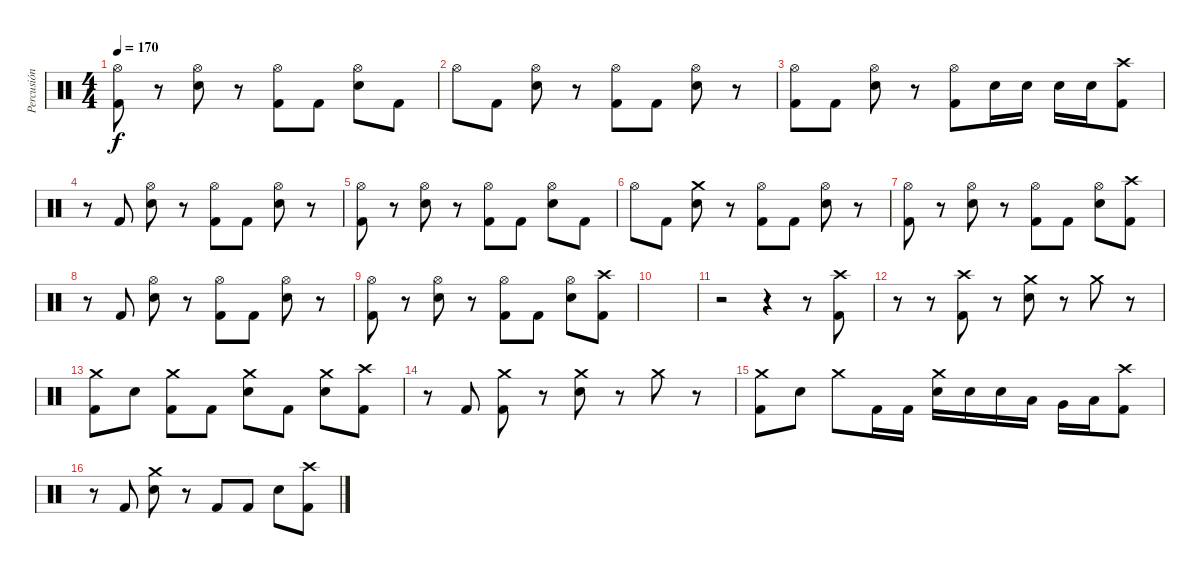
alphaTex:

\track ("Percusión" "Percusión") {instrument percussion}
\staff {score}
\articulation defaults
\ts (4 4)
\tempo 170
\clef neutral
\ks c
("Kick (hit) 2" "Hi-Hat (open)").8{dy f} r.8 ("Snare (hit) 2" "Hi-Hat (open)").8 r.8 ("Kick (hit) 2" "Hi-Hat (open)").8 "Kick (hit) 2".8 ("Snare (hit) 2" "Hi-Hat (open)").8 "Kick (hit) 2".8 |
"Hi-Hat (open)".8 "Kick (hit) 2".8 ("Snare (hit) 2" "Hi-Hat (open)").8 r.8 ("Kick (hit) 2" "Hi-Hat (open)").8 "Kick (hit) 2".8 ("Snare (hit) 2" "Hi-Hat (open)").8 r.8 |
("Kick (hit) 2" "Hi-Hat (open)").8 "Kick (hit) 2".8 ("Snare (hit) 2" "Hi-Hat (open)").8 r.8 ("Kick (hit) 2" "Hi-Hat (open)").8 "Snare (hit) 2".16 "Snare (hit) 2".16 "Snare (hit) 2".16 "Snare (hit) 2".16 ("Kick (hit) 2" "Crash high (hit)").8 |
r.8 "Kick (hit) 2".8 ("Snare (hit) 2" "Hi-Hat (open)").8 r.8 ("Kick (hit) 2" "Hi-Hat (open)").8 "Kick (hit) 2".8 ("Snare (hit) 2" "Hi-Hat (open)").8 r.8 |
("Kick (hit) 2" "Hi-Hat (open)").8 r.8 ("Snare (hit) 2" "Hi-Hat (open)").8 r.8 ("Kick (hit) 2" "Hi-Hat (open)").8 "Kick (hit) 2".8 ("Snare (hit) 2" "Hi-Hat (open)").8 "Kick (hit) 2".8 |
"Hi-Hat (open)".8 "Kick (hit) 2".8 ("Snare (hit) 2" "Crash medium (hit)").8 r.8 ("Kick (hit) 2" "Hi-Hat (open)").8 "Kick (hit) 2".8 ("Snare (hit) 2" "Hi-Hat (open)").8 r.8 |
("Kick (hit) 2" "Hi-Hat (open)").8 r.8 ("Snare (hit) 2" "Hi-Hat (open)").8 r.8 ("Kick (hit) 2" "Hi-Hat (open)").8 "Kick (hit) 2".8 ("Snare (hit) 2" "Hi-Hat (open)").8 ("Kick (hit) 2" "Crash high (hit)").8 |
r.8 "Kick (hit) 2".8 ("Snare (hit) 2" "Hi-Hat (open)").8 r.8 ("Kick (hit) 2" "Hi-Hat (open)").8 "Kick (hit) 2".8 ("Snare (hit) 2" "Hi-Hat (open)").8 r.8 |
("Kick (hit) 2" "Hi-Hat (open)").8 r.8 ("Snare (hit) 2" "Hi-Hat (open)").8 r.8 ("Kick (hit) 2" "Hi-Hat (open)").8 "Kick (hit) 2".8 ("Snare (hit) 2" "Hi-Hat (open)").8 ("Kick (hit) 2" "Crash high (hit)").8 |
|
r.2 r.4 r.8 ("Kick (hit) 2" "Crash high (hit)").8 |
r.8 r.8 ("Kick (hit) 2" "Crash high (hit)").8 r.8 ("Snare (hit) 2" "Crash medium (hit)").8 r.8 "Crash medium (hit)".8 r.8 |
("Kick (hit) 2" "Crash medium (hit)").8 "Snare (hit) 2".8 ("Kick (hit) 2" "Crash medium (hit)").8 "Kick (hit) 2".8 ("Snare (hit) 2" "Crash medium (hit)").8 "Kick (hit) 2".8 ("Snare (hit) 2" "Crash medium (hit)").8 ("Kick (hit) 2" "Crash high (hit)").8 |
r.8 "Kick (hit) 2".8 ("Kick (hit) 2" "Crash medium (hit)").8 r.8 ("Snare (hit) 2" "Crash medium (hit)").8 r.8 "Crash medium (hit)".8 r.8 |
("Kick (hit) 2" "Crash medium (hit)").8 "Snare (hit) 2".8 "Crash medium (hit)".8 "Kick (hit) 2".16 "Kick (hit) 2".16 ("Snare (hit) 2" "Crash medium (hit)").16 "Snare (hit) 2".16 "Snare (hit) 2".16 "Low Tom (hit)".16 "Very Low Tom (hit)".16 "Low Floor Tom (hit)".16 ("Kick (hit) 2" "Crash high (hit)").8 |
r.8 "Kick (hit) 2".8 ("Snare (hit) 2" "Crash medium (hit)").8 r.8 "Kick (hit) 2".8 "Kick (hit) 2".8 "Snare (hit) 2".8 ("Kick (hit) 2" "Crash high (hit)").8
